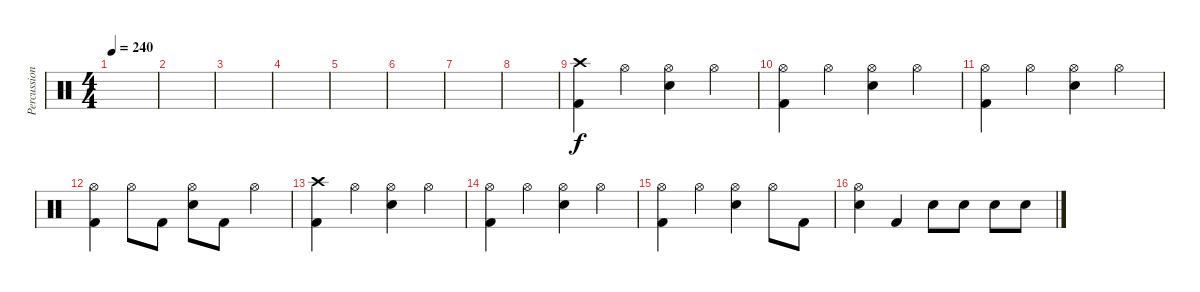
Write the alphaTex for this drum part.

\track ("Percussion" "Percussion") {instrument percussion}
\staff {score}
\articulation defaults
\ts (4 4)
\tempo 240
\clef neutral
\ks c
|
|
|
|
|
|
|
|
("Crash high (hit)" "Kick (hit) 2").4 "Hi-Hat (open)".4 ("Hi-Hat (open)" "Snare (hit) 2").4 "Hi-Hat (open)".4 |
("Hi-Hat (open)" "Kick (hit) 2").4 "Hi-Hat (open)".4 ("Hi-Hat (open)" "Snare (hit) 2").4 "Hi-Hat (open)".4 |
("Hi-Hat (open)" "Kick (hit) 2").4 "Hi-Hat (open)".4 ("Hi-Hat (open)" "Snare (hit) 2").4 "Hi-Hat (open)".4 |
("Hi-Hat (open)" "Kick (hit) 2").4 "Hi-Hat (open)".8 "Kick (hit) 2".8 ("Hi-Hat (open)" "Snare (hit) 2").8 "Kick (hit) 2".8 "Hi-Hat (open)".4 |
("Crash high (hit)" "Kick (hit) 2").4 "Hi-Hat (open)".4 ("Hi-Hat (open)" "Snare (hit) 2").4 "Hi-Hat (open)".4 |
("Hi-Hat (open)" "Kick (hit) 2").4 "Hi-Hat (open)".4 ("Hi-Hat (open)" "Snare (hit) 2").4 "Hi-Hat (open)".4 |
("Hi-Hat (open)" "Kick (hit) 2").4 "Hi-Hat (open)".4 ("Hi-Hat (open)" "Snare (hit) 2").4 "Hi-Hat (open)".8 "Kick (hit) 2".8 |
("Hi-Hat (open)" "Snare (hit) 2").4 "Kick (hit) 2".4 "Snare (hit) 2".8 "Snare (hit) 2".8 "Snare (hit) 2".8 "Snare (hit) 2".8
